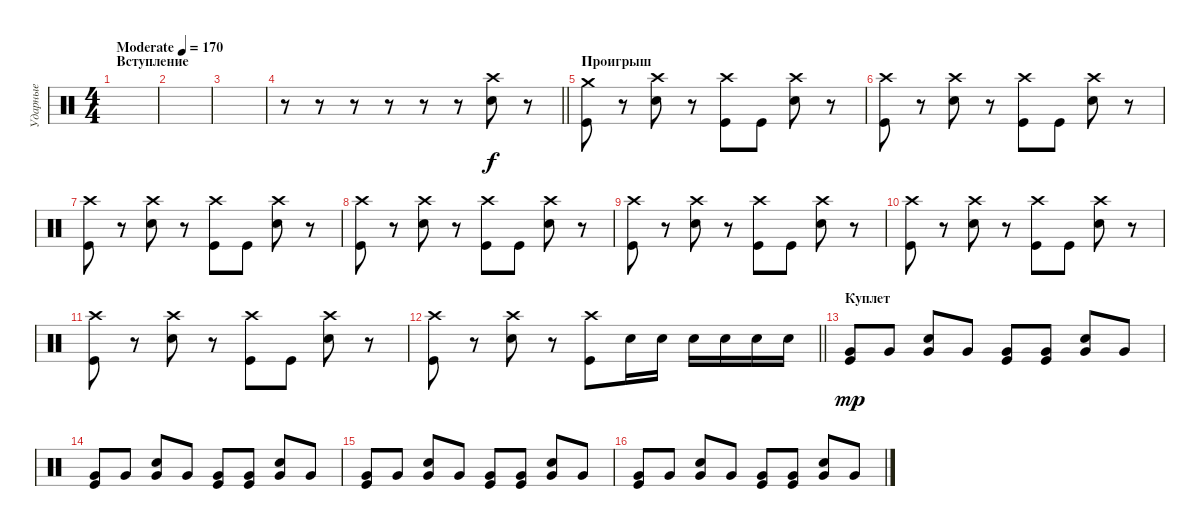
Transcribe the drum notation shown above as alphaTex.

\track ("Ударные" "Ударные") {instrument percussion}
\staff {score}
\articulation defaults
\ts (4 4)
\section ("" "Вступление")
\tempo (170 "Moderate")
\clef neutral
\ks c
|
|
|
\barLineRight lightlight
r.8 r.8 r.8 r.8 r.8 r.8 ("Crash high (hit)" "Electric Snare (hit)").8 r.8 |
\section ("" "Проигрыш")
("Crash medium (hit)" "Kick (hit)").8 r.8 ("Crash high (hit)" "Electric Snare (hit)").8 r.8 ("Crash high (hit)" "Kick (hit)").8 "Kick (hit)".8 ("Crash high (hit)" "Electric Snare (hit)").8 r.8 |
("Crash high (hit)" "Kick (hit)").8 r.8 ("Crash high (hit)" "Electric Snare (hit)").8 r.8 ("Crash high (hit)" "Kick (hit)").8 "Kick (hit)".8 ("Crash high (hit)" "Electric Snare (hit)").8 r.8 |
("Crash high (hit)" "Kick (hit)").8 r.8 ("Crash high (hit)" "Electric Snare (hit)").8 r.8 ("Crash high (hit)" "Kick (hit)").8 "Kick (hit)".8 ("Crash high (hit)" "Electric Snare (hit)").8 r.8 |
("Crash high (hit)" "Kick (hit)").8 r.8 ("Crash high (hit)" "Electric Snare (hit)").8 r.8 ("Crash high (hit)" "Kick (hit)").8 "Kick (hit)".8 ("Crash high (hit)" "Electric Snare (hit)").8 r.8 |
("Crash high (hit)" "Kick (hit)").8 r.8 ("Crash high (hit)" "Electric Snare (hit)").8 r.8 ("Crash high (hit)" "Kick (hit)").8 "Kick (hit)".8 ("Crash high (hit)" "Electric Snare (hit)").8 r.8 |
("Crash high (hit)" "Kick (hit)").8 r.8 ("Crash high (hit)" "Electric Snare (hit)").8 r.8 ("Crash high (hit)" "Kick (hit)").8 "Kick (hit)".8 ("Crash high (hit)" "Electric Snare (hit)").8 r.8 |
("Crash high (hit)" "Kick (hit)").8 r.8 ("Crash high (hit)" "Electric Snare (hit)").8 r.8 ("Crash high (hit)" "Kick (hit)").8 "Kick (hit)".8 ("Crash high (hit)" "Electric Snare (hit)").8 r.8 |
\barLineRight lightlight
("Crash high (hit)" "Kick (hit)").8 r.8 ("Crash high (hit)" "Electric Snare (hit)").8 r.8 ("Crash high (hit)" "Kick (hit)").8 "Electric Snare (hit)".16 "Electric Snare (hit)".16 "Electric Snare (hit)".16 "Electric Snare (hit)".16 "Electric Snare (hit)".16 "Electric Snare (hit)".16 |
\section ("" "Куплет")
("Very Low Tom (hit)" "Kick (hit)").8{dy mp} "Very Low Tom (hit)".8 ("Very Low Tom (hit)" "Electric Snare (hit)").8 "Very Low Tom (hit)".8 ("Very Low Tom (hit)" "Kick (hit)").8 ("Very Low Tom (hit)" "Kick (hit)").8 ("Very Low Tom (hit)" "Electric Snare (hit)").8 "Very Low Tom (hit)".8 |
("Very Low Tom (hit)" "Kick (hit)").8 "Very Low Tom (hit)".8 ("Very Low Tom (hit)" "Electric Snare (hit)").8 "Very Low Tom (hit)".8 ("Very Low Tom (hit)" "Kick (hit)").8 ("Very Low Tom (hit)" "Kick (hit)").8 ("Very Low Tom (hit)" "Electric Snare (hit)").8 "Very Low Tom (hit)".8 |
("Very Low Tom (hit)" "Kick (hit)").8 "Very Low Tom (hit)".8 ("Very Low Tom (hit)" "Electric Snare (hit)").8 "Very Low Tom (hit)".8 ("Very Low Tom (hit)" "Kick (hit)").8 ("Very Low Tom (hit)" "Kick (hit)").8 ("Very Low Tom (hit)" "Electric Snare (hit)").8 "Very Low Tom (hit)".8 |
("Very Low Tom (hit)" "Kick (hit)").8 "Very Low Tom (hit)".8 ("Very Low Tom (hit)" "Electric Snare (hit)").8 "Very Low Tom (hit)".8 ("Very Low Tom (hit)" "Kick (hit)").8 ("Very Low Tom (hit)" "Kick (hit)").8 ("Very Low Tom (hit)" "Electric Snare (hit)").8 "Very Low Tom (hit)".8
